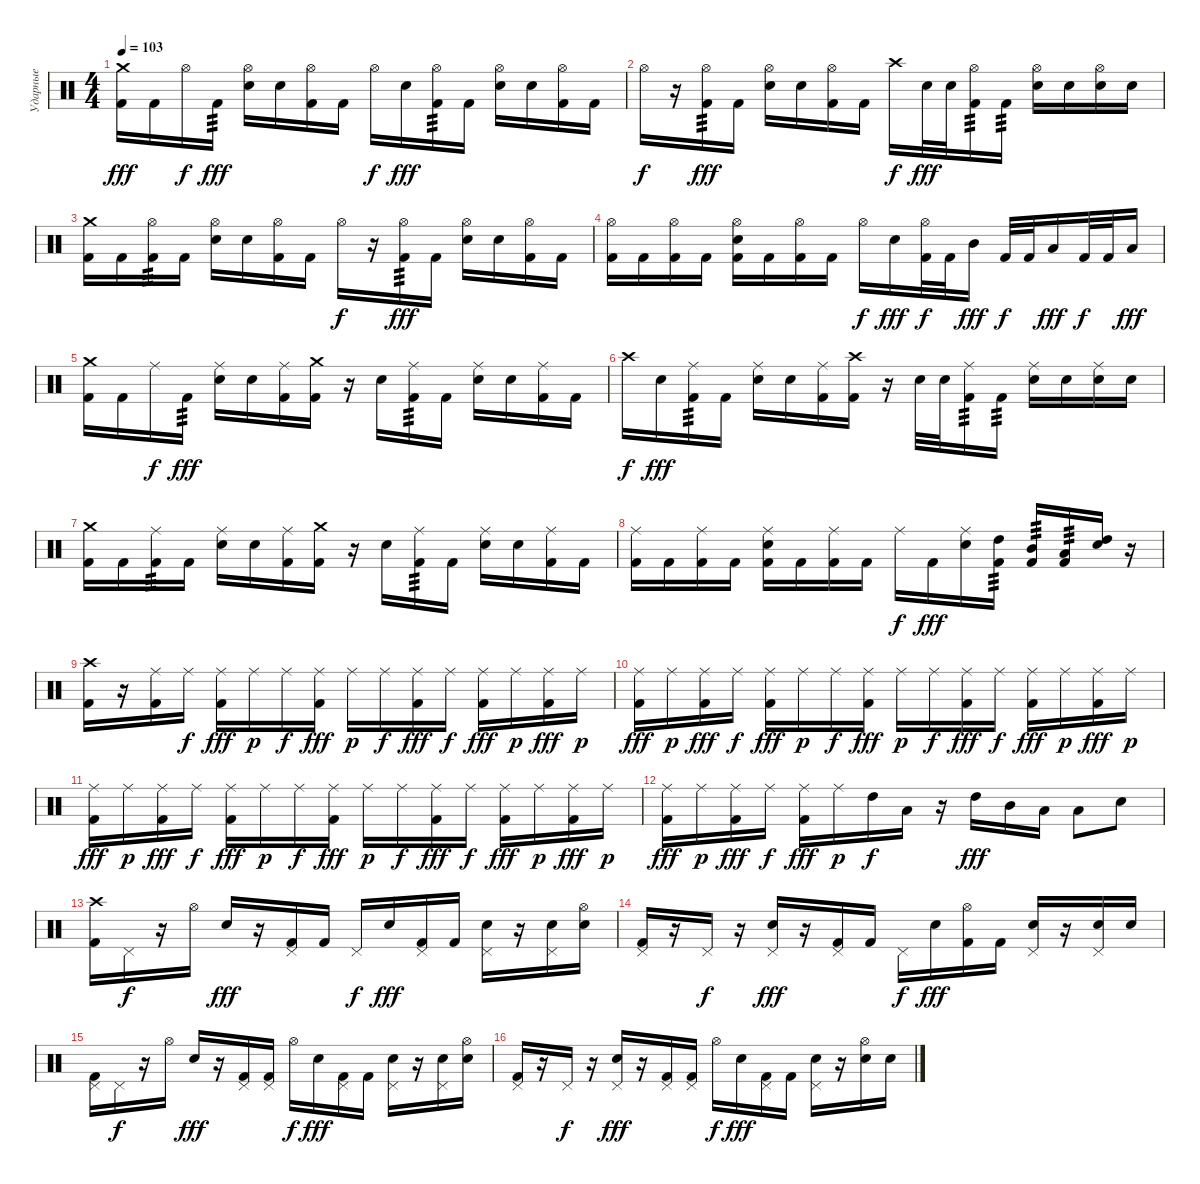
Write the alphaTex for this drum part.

\track ("Ударные" "Ударные") {instrument percussion}
\staff {score}
\articulation defaults
\ts (4 4)
\tempo 103
\clef neutral
\ks c
("Crash medium (hit)" "Kick (hit) 2").16{dy fff} "Kick (hit) 2".16 "Hi-Hat (open)".16{dy f} "Kick (hit) 2".16{tp 3 dy fff} ("Hi-Hat (open)" "Snare (hit) 2").16 "Snare (hit) 2".16 ("Hi-Hat (open)" "Kick (hit) 2").16 "Kick (hit) 2".16 "Hi-Hat (open)".16{dy f} "Snare (hit) 2".16{dy fff} ("Hi-Hat (open)" "Kick (hit) 2").16{tp 3} "Kick (hit) 2".16 ("Hi-Hat (open)" "Snare (hit) 2").16 "Snare (hit) 2".16 ("Hi-Hat (open)" "Kick (hit) 2").16 "Kick (hit) 2".16 |
"Hi-Hat (open)".16{dy f} r.16 ("Hi-Hat (open)" "Kick (hit) 2").16{tp 3 dy fff} "Kick (hit) 2".16 ("Hi-Hat (open)" "Snare (hit) 2").16 "Snare (hit) 2".16 ("Hi-Hat (open)" "Kick (hit) 2").16 "Kick (hit) 2".16 "Crash high (hit)".16{dy f} "Snare (hit) 2".32{dy fff} "Snare (hit) 2".32 ("Hi-Hat (open)" "Kick (hit) 2").16{tp 3} "Kick (hit) 2".16{tp 3} ("Hi-Hat (open)" "Snare (hit) 2").16 "Snare (hit) 2".16 ("Hi-Hat (open)" "Snare (hit) 2").16 "Snare (hit) 2".16 |
("Crash medium (hit)" "Kick (hit) 2").16 "Kick (hit) 2".16 ("Hi-Hat (open)" "Kick (hit) 2").16{tp 3} "Kick (hit) 2".16 ("Hi-Hat (open)" "Snare (hit) 2").16 "Snare (hit) 2".16 ("Hi-Hat (open)" "Kick (hit) 2").16 "Kick (hit) 2".16 "Hi-Hat (open)".16{dy f} r.16 ("Hi-Hat (open)" "Kick (hit) 2").16{tp 3 dy fff} "Kick (hit) 2".16 ("Hi-Hat (open)" "Snare (hit) 2").16 "Snare (hit) 2".16 ("Hi-Hat (open)" "Kick (hit) 2").16 "Kick (hit) 2".16 |
("Hi-Hat (open)" "Kick (hit) 2").16 "Kick (hit) 2".16 ("Hi-Hat (open)" "Kick (hit) 2").16 "Kick (hit) 2".16 ("Hi-Hat (open)" "Snare (hit) 2" "Kick (hit) 2").16 "Kick (hit) 2".16 ("Hi-Hat (open)" "Kick (hit) 2").16 "Kick (hit) 2".16 "Hi-Hat (open)".16{dy f} "Snare (hit) 2".16{dy fff} ("Hi-Hat (open)" "Kick (hit) 2").32{dy f} "Kick (hit) 2".32 "Mid Tom (hit)".16{dy fff} "Kick (hit) 2".32{dy f} "Kick (hit) 2".32 "Low Tom (hit)".16{dy fff} "Kick (hit) 2".32{dy f} "Kick (hit) 2".32 "Low Tom (hit)".16{dy fff} |
("Crash medium (hit)" "Kick (hit) 2").16 "Kick (hit) 2".16 "Ride (middle)".16{dy f} "Kick (hit) 2".16{tp 3 dy fff} ("Ride (middle)" "Snare (hit) 2").16 "Snare (hit) 2".16 ("Ride (middle)" "Kick (hit) 2").16 ("Crash medium (hit)" "Kick (hit) 2").16 r.16 "Snare (hit) 2".16 ("Ride (middle)" "Kick (hit) 2").16{tp 3} "Kick (hit) 2".16 ("Ride (middle)" "Snare (hit) 2").16 "Snare (hit) 2".16 ("Ride (middle)" "Kick (hit) 2").16 "Kick (hit) 2".16 |
"Crash high (hit)".16{dy f} "Snare (hit) 2".16{dy fff} ("Ride (middle)" "Kick (hit) 2").16{tp 3} "Kick (hit) 2".16 ("Ride (middle)" "Snare (hit) 2").16 "Snare (hit) 2".16 ("Ride (middle)" "Kick (hit) 2").16 ("Crash high (hit)" "Kick (hit) 2").16 r.16 "Snare (hit) 2".32 "Snare (hit) 2".32 ("Ride (middle)" "Kick (hit) 2").16{tp 3} "Kick (hit) 2".16{tp 3} ("Ride (middle)" "Snare (hit) 2").16 "Snare (hit) 2".16 ("Ride (middle)" "Snare (hit) 2").16 "Snare (hit) 2".16 |
("Crash medium (hit)" "Kick (hit) 2").16 "Kick (hit) 2".16 ("Ride (middle)" "Kick (hit) 2").16{tp 3} "Kick (hit) 2".16 ("Ride (middle)" "Snare (hit) 2").16 "Snare (hit) 2".16 ("Ride (middle)" "Kick (hit) 2").16 ("Crash medium (hit)" "Kick (hit) 2").16 r.16 "Snare (hit) 2".16 ("Ride (middle)" "Kick (hit) 2").16{tp 3} "Kick (hit) 2".16 ("Ride (middle)" "Snare (hit) 2").16 "Snare (hit) 2".16 ("Ride (middle)" "Kick (hit) 2").16 "Kick (hit) 2".16 |
("Ride (middle)" "Kick (hit) 2").16 "Kick (hit) 2".16 ("Ride (middle)" "Kick (hit) 2").16 "Kick (hit) 2".16 ("Ride (middle)" "Snare (hit) 2" "Kick (hit) 2").16 "Kick (hit) 2".16 ("Ride (middle)" "Kick (hit) 2").16 "Kick (hit) 2".16 "Ride (middle)".16{dy f} "Kick (hit) 2".16{dy fff} ("Ride (middle)" "Snare (hit) 2").16 ("High Tom (hit)" "Kick (hit) 2").16{tp 3} ("Mid Tom (hit)" "Kick (hit) 2").16{tp 3} ("Low Tom (hit)" "Kick (hit) 2").16{tp 3} ("High Tom (hit)" "Snare (hit) 2").16 r.16 |
("Crash high (hit)" "Kick (hit) 2").16 r.16 ("Ride (middle)" "Kick (hit) 2").16 "Ride (middle)".16{dy f} ("Ride (middle)" "Kick (hit) 2").16{dy fff} "Ride (middle)".16{dy p} "Ride (middle)".16{dy f} ("Ride (middle)" "Kick (hit) 2").16{dy fff} "Ride (middle)".16{dy p} "Ride (middle)".16{dy f} ("Ride (middle)" "Kick (hit) 2").16{dy fff} "Ride (middle)".16{dy f} ("Ride (middle)" "Kick (hit) 2").16{dy fff} "Ride (middle)".16{dy p} ("Ride (middle)" "Kick (hit) 2").16{dy fff} "Ride (middle)".16{dy p} |
("Ride (middle)" "Kick (hit) 2").16{dy fff} "Ride (middle)".16{dy p} ("Ride (middle)" "Kick (hit) 2").16{dy fff} "Ride (middle)".16{dy f} ("Ride (middle)" "Kick (hit) 2").16{dy fff} "Ride (middle)".16{dy p} "Ride (middle)".16{dy f} ("Ride (middle)" "Kick (hit) 2").16{dy fff} "Ride (middle)".16{dy p} "Ride (middle)".16{dy f} ("Ride (middle)" "Kick (hit) 2").16{dy fff} "Ride (middle)".16{dy f} ("Ride (middle)" "Kick (hit) 2").16{dy fff} "Ride (middle)".16{dy p} ("Ride (middle)" "Kick (hit) 2").16{dy fff} "Ride (middle)".16{dy p} |
("Ride (middle)" "Kick (hit) 2").16{dy fff} "Ride (middle)".16{dy p} ("Ride (middle)" "Kick (hit) 2").16{dy fff} "Ride (middle)".16{dy f} ("Ride (middle)" "Kick (hit) 2").16{dy fff} "Ride (middle)".16{dy p} "Ride (middle)".16{dy f} ("Ride (middle)" "Kick (hit) 2").16{dy fff} "Ride (middle)".16{dy p} "Ride (middle)".16{dy f} ("Ride (middle)" "Kick (hit) 2").16{dy fff} "Ride (middle)".16{dy f} ("Ride (middle)" "Kick (hit) 2").16{dy fff} "Ride (middle)".16{dy p} ("Ride (middle)" "Kick (hit) 2").16{dy fff} "Ride (middle)".16{dy p} |
("Ride (middle)" "Kick (hit) 2").16{dy fff} "Ride (middle)".16{dy p} ("Ride (middle)" "Kick (hit) 2").16{dy fff} "Ride (middle)".16{dy f} ("Ride (middle)" "Kick (hit) 2").16{dy fff} "Ride (middle)".16{dy p} "High Tom (hit)".16{dy f} "Low Floor Tom (hit)".16 r.16 "High Tom (hit)".16{dy fff} "Mid Tom (hit)".16 "Low Tom (hit)".16 "Low Floor Tom (hit)".8 "Snare (hit) 2".8 |
("Crash high (hit)" "Kick (hit) 2").16 "Pedal Hi-Hat (hit)".16{dy f} r.16 "Hi-Hat (open)".16 "Snare (hit) 2".16{dy fff} r.16 ("Pedal Hi-Hat (hit)" "Kick (hit) 2").16 "Kick (hit) 2".16 "Pedal Hi-Hat (hit)".16{dy f} "Snare (hit) 2".16{dy fff} ("Pedal Hi-Hat (hit)" "Kick (hit) 2").16 "Kick (hit) 2".16 ("Pedal Hi-Hat (hit)" "Snare (hit) 2").16 r.16 ("Pedal Hi-Hat (hit)" "Snare (hit) 2").16 ("Hi-Hat (open)" "Snare (hit) 2").16 |
("Pedal Hi-Hat (hit)" "Kick (hit) 2").16 r.16 "Pedal Hi-Hat (hit)".16{dy f} r.16 ("Pedal Hi-Hat (hit)" "Snare (hit) 2").16{dy fff} r.16 ("Pedal Hi-Hat (hit)" "Kick (hit) 2").16 "Kick (hit) 2".16 "Pedal Hi-Hat (hit)".16{dy f} "Snare (hit) 2".16{dy fff} ("Hi-Hat (open)" "Kick (hit) 2").16 "Kick (hit) 2".16 ("Pedal Hi-Hat (hit)" "Snare (hit) 2").16 r.16 ("Pedal Hi-Hat (hit)" "Snare (hit) 2").16 "Snare (hit) 2".16 |
("Pedal Hi-Hat (hit)" "Kick (hit) 2").16 "Pedal Hi-Hat (hit)".16{dy f} r.16 "Hi-Hat (open)".16 "Snare (hit) 2".16{dy fff} r.16 ("Pedal Hi-Hat (hit)" "Kick (hit) 2").16 ("Pedal Hi-Hat (hit)" "Kick (hit) 2").16 "Hi-Hat (open)".16{dy f} "Snare (hit) 2".16{dy fff} ("Pedal Hi-Hat (hit)" "Kick (hit) 2").16 "Kick (hit) 2".16 ("Pedal Hi-Hat (hit)" "Snare (hit) 2").16 r.16 ("Pedal Hi-Hat (hit)" "Snare (hit) 2").16 ("Hi-Hat (open)" "Snare (hit) 2").16 |
("Pedal Hi-Hat (hit)" "Kick (hit) 2").16 r.16 "Pedal Hi-Hat (hit)".16{dy f} r.16 ("Pedal Hi-Hat (hit)" "Snare (hit) 2").16{dy fff} r.16 ("Pedal Hi-Hat (hit)" "Kick (hit) 2").16 ("Pedal Hi-Hat (hit)" "Kick (hit) 2").16 "Hi-Hat (open)".16{dy f} "Snare (hit) 2".16{dy fff} ("Pedal Hi-Hat (hit)" "Kick (hit) 2").16 "Kick (hit) 2".16 ("Pedal Hi-Hat (hit)" "Snare (hit) 2").16 r.16 ("Hi-Hat (open)" "Snare (hit) 2").16 "Snare (hit) 2".16
